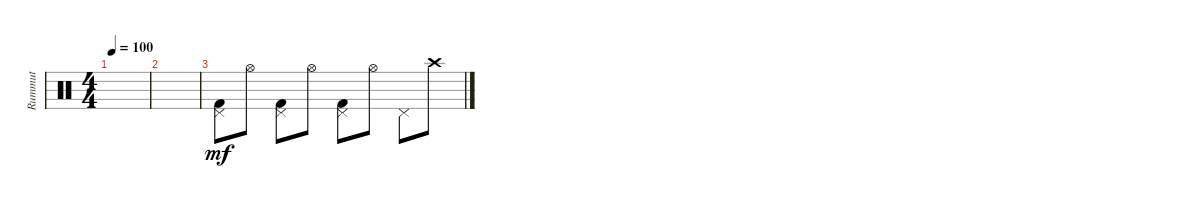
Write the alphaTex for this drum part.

\track ("Rummut" "Rummut") {instrument percussion}
\staff {score}
\articulation defaults
\ts (4 4)
\tempo 100
\clef neutral
\ks c
|
|
("Pedal Hi-Hat (hit)" "Kick (hit) 2").8{dy mf} "Hi-Hat (open)".8 ("Pedal Hi-Hat (hit)" "Kick (hit) 2").8 "Hi-Hat (open)".8 ("Pedal Hi-Hat (hit)" "Kick (hit) 2").8 "Hi-Hat (open)".8 "Pedal Hi-Hat (hit)".8 "Crash high (hit)".8
